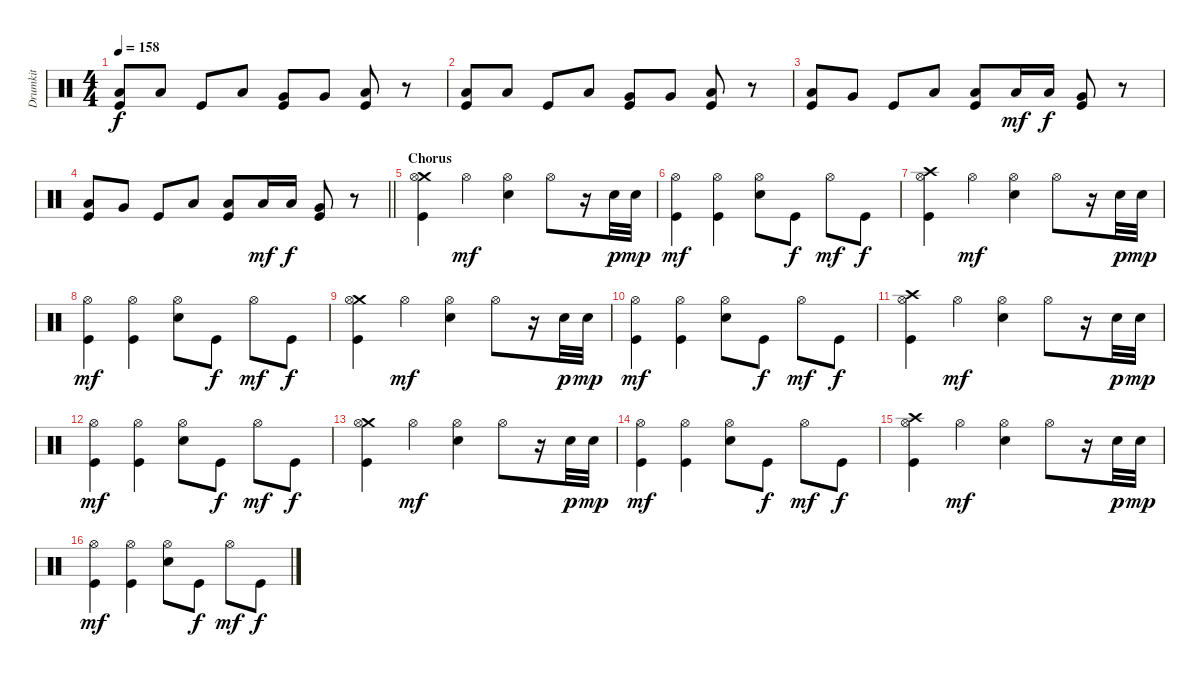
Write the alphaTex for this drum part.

\track ("Drumkit" "Drumkit") {instrument percussion}
\staff {score}
\articulation defaults
\ts (4 4)
\tempo 158
\clef neutral
\ks c
("Low Floor Tom (hit)" "Kick (hit)").8{dy f} "Low Floor Tom (hit)".8 "Kick (hit)".8 "Low Tom (hit)".8 ("Very Low Tom (hit)" "Kick (hit)").8 "Very Low Tom (hit)".8 ("Low Floor Tom (hit)" "Kick (hit)").8 r.8 |
("Low Floor Tom (hit)" "Kick (hit)").8 "Low Floor Tom (hit)".8 "Kick (hit)".8 "Low Tom (hit)".8 ("Very Low Tom (hit)" "Kick (hit)").8 "Very Low Tom (hit)".8 ("Low Floor Tom (hit)" "Kick (hit)").8 r.8 |
("Low Floor Tom (hit)" "Kick (hit)").8 "Very Low Tom (hit)".8 "Kick (hit)".8 "Low Tom (hit)".8 ("Low Floor Tom (hit)" "Kick (hit)").8 "Low Floor Tom (hit)".16{dy mf} "Low Floor Tom (hit)".16{dy f} ("Very Low Tom (hit)" "Kick (hit)").8 r.8 |
\barLineRight lightlight
("Low Floor Tom (hit)" "Kick (hit)").8 "Very Low Tom (hit)".8 "Kick (hit)".8 "Low Tom (hit)".8 ("Low Floor Tom (hit)" "Kick (hit)").8 "Low Floor Tom (hit)".16{dy mf} "Low Floor Tom (hit)".16{dy f} ("Very Low Tom (hit)" "Kick (hit)").8 r.8 |
\section ("" "Chorus")
("Crash medium (hit)" "Hi-Hat (open)" "Kick (hit)").4 "Hi-Hat (open)".4{dy mf} ("Hi-Hat (open)" "Snare (hit) 2").4 "Hi-Hat (open)".8 r.16 "Snare (hit) 2".32{dy p} "Snare (hit) 2".32{dy mp} |
("Hi-Hat (open)" "Kick (hit)").4{dy mf} ("Hi-Hat (open)" "Kick (hit)").4 ("Hi-Hat (open)" "Snare (hit) 2").8 "Kick (hit)".8{dy f} "Hi-Hat (open)".8{dy mf} "Kick (hit)".8{dy f} |
("Crash high (hit)" "Hi-Hat (open)" "Kick (hit)").4 "Hi-Hat (open)".4{dy mf} ("Hi-Hat (open)" "Snare (hit) 2").4 "Hi-Hat (open)".8 r.16 "Snare (hit) 2".32{dy p} "Snare (hit) 2".32{dy mp} |
("Hi-Hat (open)" "Kick (hit)").4{dy mf} ("Hi-Hat (open)" "Kick (hit)").4 ("Hi-Hat (open)" "Snare (hit) 2").8 "Kick (hit)".8{dy f} "Hi-Hat (open)".8{dy mf} "Kick (hit)".8{dy f} |
("Crash medium (hit)" "Hi-Hat (open)" "Kick (hit)").4 "Hi-Hat (open)".4{dy mf} ("Hi-Hat (open)" "Snare (hit) 2").4 "Hi-Hat (open)".8 r.16 "Snare (hit) 2".32{dy p} "Snare (hit) 2".32{dy mp} |
("Hi-Hat (open)" "Kick (hit)").4{dy mf} ("Hi-Hat (open)" "Kick (hit)").4 ("Hi-Hat (open)" "Snare (hit) 2").8 "Kick (hit)".8{dy f} "Hi-Hat (open)".8{dy mf} "Kick (hit)".8{dy f} |
("Crash high (hit)" "Hi-Hat (open)" "Kick (hit)").4 "Hi-Hat (open)".4{dy mf} ("Hi-Hat (open)" "Snare (hit) 2").4 "Hi-Hat (open)".8 r.16 "Snare (hit) 2".32{dy p} "Snare (hit) 2".32{dy mp} |
("Hi-Hat (open)" "Kick (hit)").4{dy mf} ("Hi-Hat (open)" "Kick (hit)").4 ("Hi-Hat (open)" "Snare (hit) 2").8 "Kick (hit)".8{dy f} "Hi-Hat (open)".8{dy mf} "Kick (hit)".8{dy f} |
("Crash medium (hit)" "Hi-Hat (open)" "Kick (hit)").4 "Hi-Hat (open)".4{dy mf} ("Hi-Hat (open)" "Snare (hit) 2").4 "Hi-Hat (open)".8 r.16 "Snare (hit) 2".32{dy p} "Snare (hit) 2".32{dy mp} |
("Hi-Hat (open)" "Kick (hit)").4{dy mf} ("Hi-Hat (open)" "Kick (hit)").4 ("Hi-Hat (open)" "Snare (hit) 2").8 "Kick (hit)".8{dy f} "Hi-Hat (open)".8{dy mf} "Kick (hit)".8{dy f} |
("Crash high (hit)" "Hi-Hat (open)" "Kick (hit)").4 "Hi-Hat (open)".4{dy mf} ("Hi-Hat (open)" "Snare (hit) 2").4 "Hi-Hat (open)".8 r.16 "Snare (hit) 2".32{dy p} "Snare (hit) 2".32{dy mp} |
("Hi-Hat (open)" "Kick (hit)").4{dy mf} ("Hi-Hat (open)" "Kick (hit)").4 ("Hi-Hat (open)" "Snare (hit) 2").8 "Kick (hit)".8{dy f} "Hi-Hat (open)".8{dy mf} "Kick (hit)".8{dy f}
